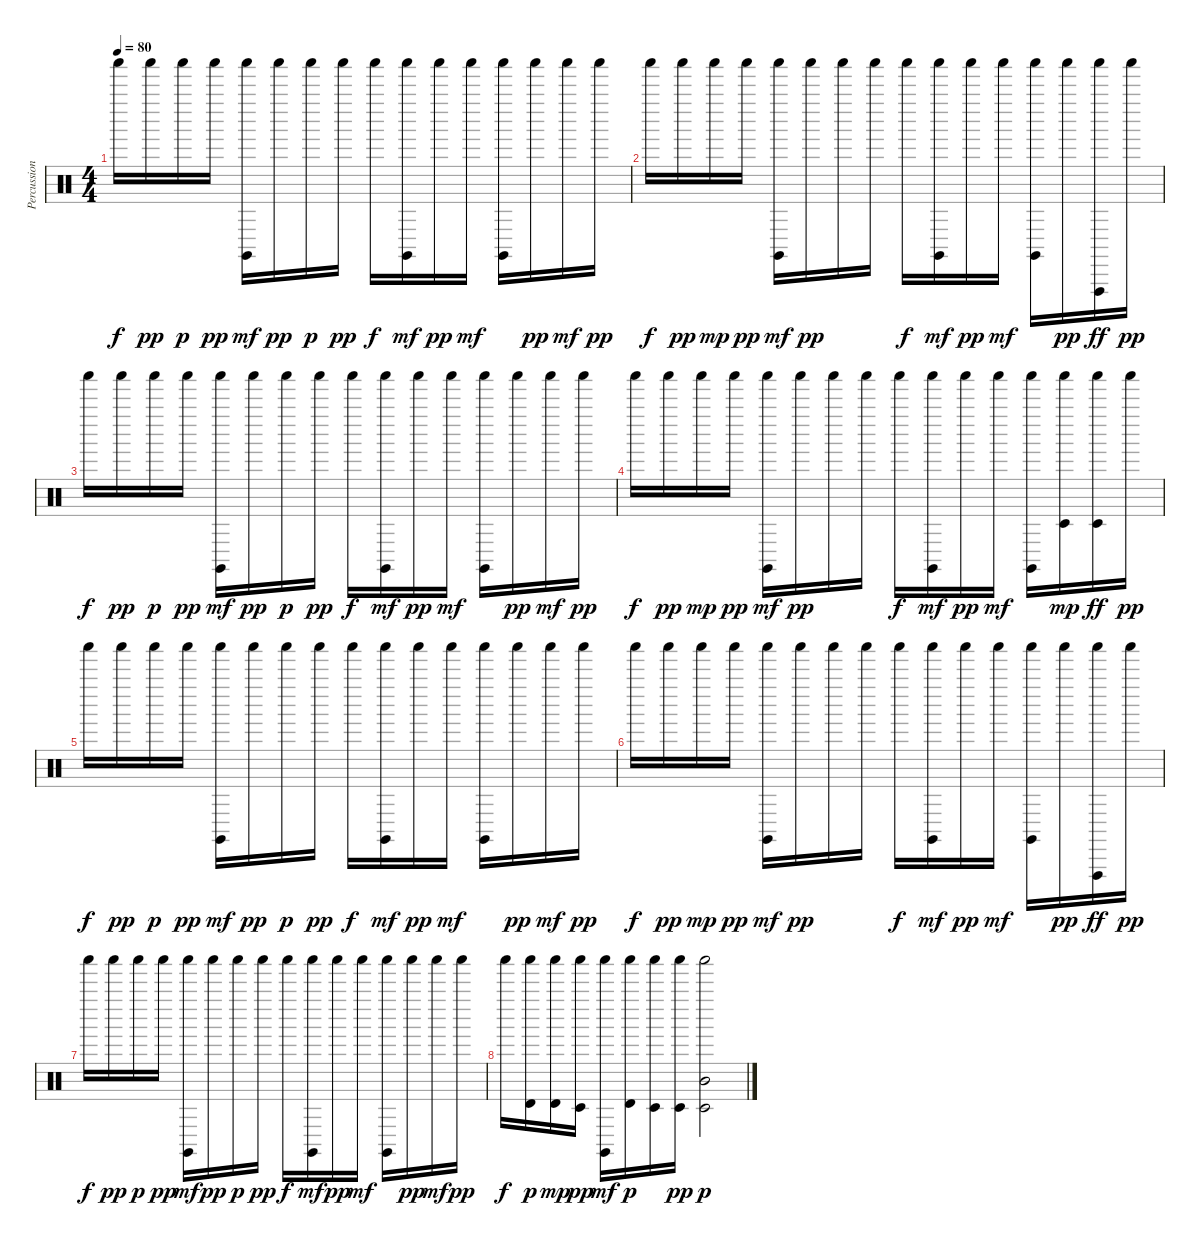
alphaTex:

\track ("Percussion" "Percussion") {instrument percussion}
\staff {score}
\articulation defaults
\ts (4 4)
\tempo 80
\clef neutral
\ks c "Shaker (hit)".16{dy f} "Shaker (hit)".16{dy pp} "Shaker (hit)".16{dy p} "Shaker (hit)".16{dy pp}
("Shaker (hit)" "Claves (hit)").16{dy mf} "Shaker (hit)".16{dy pp} "Shaker (hit)".16{dy p} "Shaker (hit)".16{dy pp} "Shaker (hit)".16{dy f} ("Shaker (hit)" "Claves (hit)").16{dy mf} "Shaker (hit)".16{dy pp} "Shaker (hit)".16{dy mf} ("Shaker (hit)" "Claves (hit)").16 "Shaker (hit)".16{dy pp} "Shaker (hit)".16{dy mf} "Shaker (hit)".16{dy pp} |
"Shaker (hit)".16{dy f} "Shaker (hit)".16{dy pp} "Shaker (hit)".16{dy mp} "Shaker (hit)".16{dy pp} ("Shaker (hit)" "Claves (hit)").16{dy mf} "Shaker (hit)".16{dy pp} "Shaker (hit)".16 "Shaker (hit)".16 "Shaker (hit)".16{dy f} ("Shaker (hit)" "Claves (hit)").16{dy mf} "Shaker (hit)".16{dy pp} "Shaker (hit)".16{dy mf} ("Shaker (hit)" "Claves (hit)").16 "Shaker (hit)".16{dy pp} ("Shaker (hit)" "Vibraslap (hit)").16{dy ff} "Shaker (hit)".16{dy pp} |
"Shaker (hit)".16{dy f} "Shaker (hit)".16{dy pp} "Shaker (hit)".16{dy p} "Shaker (hit)".16{dy pp} ("Shaker (hit)" "Claves (hit)").16{dy mf} "Shaker (hit)".16{dy pp} "Shaker (hit)".16{dy p} "Shaker (hit)".16{dy pp} "Shaker (hit)".16{dy f} ("Shaker (hit)" "Claves (hit)").16{dy mf} "Shaker (hit)".16{dy pp} "Shaker (hit)".16{dy mf} ("Shaker (hit)" "Claves (hit)").16 "Shaker (hit)".16{dy pp} "Shaker (hit)".16{dy mf} "Shaker (hit)".16{dy pp} |
"Shaker (hit)".16{dy f} "Shaker (hit)".16{dy pp} "Shaker (hit)".16{dy mp} "Shaker (hit)".16{dy pp} ("Shaker (hit)" "Claves (hit)").16{dy mf} "Shaker (hit)".16{dy pp} "Shaker (hit)".16 "Shaker (hit)".16 "Shaker (hit)".16{dy f} ("Shaker (hit)" "Claves (hit)").16{dy mf} "Shaker (hit)".16{dy pp} "Shaker (hit)".16{dy mf} ("Shaker (hit)" "Claves (hit)").16 ("Shaker (hit)" "Timbale low (hit)").16{dy mp} ("Shaker (hit)" "Timbale low (hit)").16{dy ff} "Shaker (hit)".16{dy pp} |
"Shaker (hit)".16{dy f} "Shaker (hit)".16{dy pp} "Shaker (hit)".16{dy p} "Shaker (hit)".16{dy pp} ("Shaker (hit)" "Claves (hit)").16{dy mf} "Shaker (hit)".16{dy pp} "Shaker (hit)".16{dy p} "Shaker (hit)".16{dy pp} "Shaker (hit)".16{dy f} ("Shaker (hit)" "Claves (hit)").16{dy mf} "Shaker (hit)".16{dy pp} "Shaker (hit)".16{dy mf} ("Shaker (hit)" "Claves (hit)").16 "Shaker (hit)".16{dy pp} "Shaker (hit)".16{dy mf} "Shaker (hit)".16{dy pp} |
"Shaker (hit)".16{dy f} "Shaker (hit)".16{dy pp} "Shaker (hit)".16{dy mp} "Shaker (hit)".16{dy pp} ("Shaker (hit)" "Claves (hit)").16{dy mf} "Shaker (hit)".16{dy pp} "Shaker (hit)".16 "Shaker (hit)".16 "Shaker (hit)".16{dy f} ("Shaker (hit)" "Claves (hit)").16{dy mf} "Shaker (hit)".16{dy pp} "Shaker (hit)".16{dy mf} ("Shaker (hit)" "Claves (hit)").16 "Shaker (hit)".16{dy pp} ("Shaker (hit)" "Vibraslap (hit)").16{dy ff} "Shaker (hit)".16{dy pp} |
"Shaker (hit)".16{dy f} "Shaker (hit)".16{dy pp} "Shaker (hit)".16{dy p} "Shaker (hit)".16{dy pp} ("Shaker (hit)" "Claves (hit)").16{dy mf} "Shaker (hit)".16{dy pp} "Shaker (hit)".16{dy p} "Shaker (hit)".16{dy pp} "Shaker (hit)".16{dy f} ("Shaker (hit)" "Claves (hit)").16{dy mf} "Shaker (hit)".16{dy pp} "Shaker (hit)".16{dy mf} ("Shaker (hit)" "Claves (hit)").16 "Shaker (hit)".16{dy pp} "Shaker (hit)".16{dy mf} "Shaker (hit)".16{dy pp} |
"Shaker (hit)".16{dy f} ("Shaker (hit)" "Timbale high (hit)").16{dy p} ("Shaker (hit)" "Timbale high (hit)").16{dy mp} ("Shaker (hit)" "Timbale low (hit)").16{dy pp} ("Shaker (hit)" "Claves (hit)").16{dy mf} ("Shaker (hit)" "Timbale high (hit)").16{dy p} ("Shaker (hit)" "Timbale low (hit)").16 ("Shaker (hit)" "Timbale low (hit)").16{dy pp} ("Shaker (hit)" "Mid Tom (hit)" "Timbale low (hit)").2{dy p}
